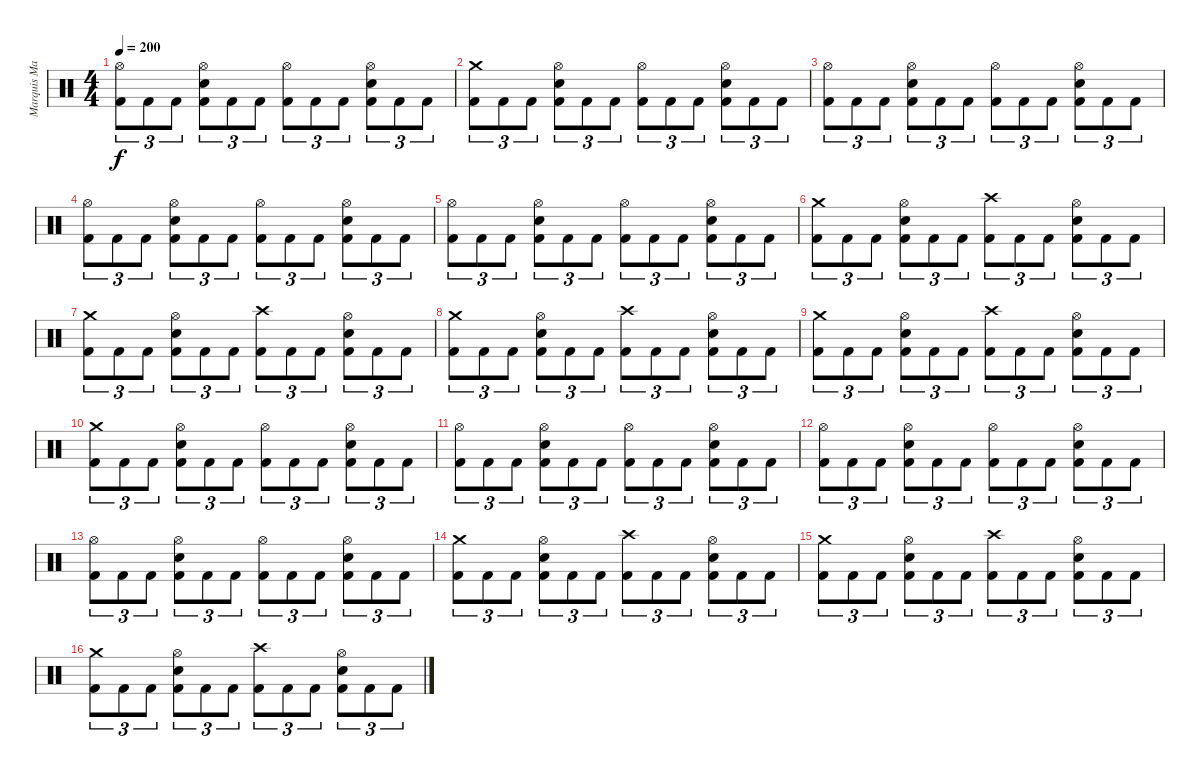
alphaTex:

\track ("Marquis Marky (DRUMS)" "Marquis Ma") {instrument percussion}
\staff {score}
\articulation defaults
\ts (4 4)
\tempo 200
\clef neutral
\ks c
("Hi-Hat (open)" "Kick (hit) 2").8{tu (3 2) dy f} "Kick (hit) 2".8{tu (3 2)} "Kick (hit) 2".8{tu (3 2)} ("Hi-Hat (open)" "Snare (hit) 2" "Kick (hit) 2").8{tu (3 2)} "Kick (hit) 2".8{tu (3 2)} "Kick (hit) 2".8{tu (3 2)} ("Hi-Hat (open)" "Kick (hit) 2").8{tu (3 2)} "Kick (hit) 2".8{tu (3 2)} "Kick (hit) 2".8{tu (3 2)} ("Hi-Hat (open)" "Snare (hit) 2" "Kick (hit) 2").8{tu (3 2)} "Kick (hit) 2".8{tu (3 2)} "Kick (hit) 2".8{tu (3 2)} |
("Crash medium (hit)" "Kick (hit) 2").8{tu (3 2)} "Kick (hit) 2".8{tu (3 2)} "Kick (hit) 2".8{tu (3 2)} ("Hi-Hat (open)" "Snare (hit) 2" "Kick (hit) 2").8{tu (3 2)} "Kick (hit) 2".8{tu (3 2)} "Kick (hit) 2".8{tu (3 2)} ("Hi-Hat (open)" "Kick (hit) 2").8{tu (3 2)} "Kick (hit) 2".8{tu (3 2)} "Kick (hit) 2".8{tu (3 2)} ("Hi-Hat (open)" "Snare (hit) 2" "Kick (hit) 2").8{tu (3 2)} "Kick (hit) 2".8{tu (3 2)} "Kick (hit) 2".8{tu (3 2)} |
("Hi-Hat (open)" "Kick (hit) 2").8{tu (3 2)} "Kick (hit) 2".8{tu (3 2)} "Kick (hit) 2".8{tu (3 2)} ("Hi-Hat (open)" "Snare (hit) 2" "Kick (hit) 2").8{tu (3 2)} "Kick (hit) 2".8{tu (3 2)} "Kick (hit) 2".8{tu (3 2)} ("Hi-Hat (open)" "Kick (hit) 2").8{tu (3 2)} "Kick (hit) 2".8{tu (3 2)} "Kick (hit) 2".8{tu (3 2)} ("Hi-Hat (open)" "Snare (hit) 2" "Kick (hit) 2").8{tu (3 2)} "Kick (hit) 2".8{tu (3 2)} "Kick (hit) 2".8{tu (3 2)} |
("Hi-Hat (open)" "Kick (hit) 2").8{tu (3 2)} "Kick (hit) 2".8{tu (3 2)} "Kick (hit) 2".8{tu (3 2)} ("Hi-Hat (open)" "Snare (hit) 2" "Kick (hit) 2").8{tu (3 2)} "Kick (hit) 2".8{tu (3 2)} "Kick (hit) 2".8{tu (3 2)} ("Hi-Hat (open)" "Kick (hit) 2").8{tu (3 2)} "Kick (hit) 2".8{tu (3 2)} "Kick (hit) 2".8{tu (3 2)} ("Hi-Hat (open)" "Snare (hit) 2" "Kick (hit) 2").8{tu (3 2)} "Kick (hit) 2".8{tu (3 2)} "Kick (hit) 2".8{tu (3 2)} |
("Hi-Hat (open)" "Kick (hit) 2").8{tu (3 2)} "Kick (hit) 2".8{tu (3 2)} "Kick (hit) 2".8{tu (3 2)} ("Hi-Hat (open)" "Snare (hit) 2" "Kick (hit) 2").8{tu (3 2)} "Kick (hit) 2".8{tu (3 2)} "Kick (hit) 2".8{tu (3 2)} ("Hi-Hat (open)" "Kick (hit) 2").8{tu (3 2)} "Kick (hit) 2".8{tu (3 2)} "Kick (hit) 2".8{tu (3 2)} ("Hi-Hat (open)" "Snare (hit) 2" "Kick (hit) 2").8{tu (3 2)} "Kick (hit) 2".8{tu (3 2)} "Kick (hit) 2".8{tu (3 2)} |
("Crash medium (hit)" "Kick (hit) 2").8{tu (3 2)} "Kick (hit) 2".8{tu (3 2)} "Kick (hit) 2".8{tu (3 2)} ("Hi-Hat (open)" "Snare (hit) 2" "Kick (hit) 2").8{tu (3 2)} "Kick (hit) 2".8{tu (3 2)} "Kick (hit) 2".8{tu (3 2)} ("Crash high (hit)" "Kick (hit) 2").8{tu (3 2)} "Kick (hit) 2".8{tu (3 2)} "Kick (hit) 2".8{tu (3 2)} ("Hi-Hat (open)" "Snare (hit) 2" "Kick (hit) 2").8{tu (3 2)} "Kick (hit) 2".8{tu (3 2)} "Kick (hit) 2".8{tu (3 2)} |
("Crash medium (hit)" "Kick (hit) 2").8{tu (3 2)} "Kick (hit) 2".8{tu (3 2)} "Kick (hit) 2".8{tu (3 2)} ("Hi-Hat (open)" "Snare (hit) 2" "Kick (hit) 2").8{tu (3 2)} "Kick (hit) 2".8{tu (3 2)} "Kick (hit) 2".8{tu (3 2)} ("Crash high (hit)" "Kick (hit) 2").8{tu (3 2)} "Kick (hit) 2".8{tu (3 2)} "Kick (hit) 2".8{tu (3 2)} ("Hi-Hat (open)" "Snare (hit) 2" "Kick (hit) 2").8{tu (3 2)} "Kick (hit) 2".8{tu (3 2)} "Kick (hit) 2".8{tu (3 2)} |
("Crash medium (hit)" "Kick (hit) 2").8{tu (3 2)} "Kick (hit) 2".8{tu (3 2)} "Kick (hit) 2".8{tu (3 2)} ("Hi-Hat (open)" "Snare (hit) 2" "Kick (hit) 2").8{tu (3 2)} "Kick (hit) 2".8{tu (3 2)} "Kick (hit) 2".8{tu (3 2)} ("Crash high (hit)" "Kick (hit) 2").8{tu (3 2)} "Kick (hit) 2".8{tu (3 2)} "Kick (hit) 2".8{tu (3 2)} ("Hi-Hat (open)" "Snare (hit) 2" "Kick (hit) 2").8{tu (3 2)} "Kick (hit) 2".8{tu (3 2)} "Kick (hit) 2".8{tu (3 2)} |
("Crash medium (hit)" "Kick (hit) 2").8{tu (3 2)} "Kick (hit) 2".8{tu (3 2)} "Kick (hit) 2".8{tu (3 2)} ("Hi-Hat (open)" "Snare (hit) 2" "Kick (hit) 2").8{tu (3 2)} "Kick (hit) 2".8{tu (3 2)} "Kick (hit) 2".8{tu (3 2)} ("Crash high (hit)" "Kick (hit) 2").8{tu (3 2)} "Kick (hit) 2".8{tu (3 2)} "Kick (hit) 2".8{tu (3 2)} ("Hi-Hat (open)" "Snare (hit) 2" "Kick (hit) 2").8{tu (3 2)} "Kick (hit) 2".8{tu (3 2)} "Kick (hit) 2".8{tu (3 2)} |
("Crash medium (hit)" "Kick (hit) 2").8{tu (3 2)} "Kick (hit) 2".8{tu (3 2)} "Kick (hit) 2".8{tu (3 2)} ("Hi-Hat (open)" "Snare (hit) 2" "Kick (hit) 2").8{tu (3 2)} "Kick (hit) 2".8{tu (3 2)} "Kick (hit) 2".8{tu (3 2)} ("Hi-Hat (open)" "Kick (hit) 2").8{tu (3 2)} "Kick (hit) 2".8{tu (3 2)} "Kick (hit) 2".8{tu (3 2)} ("Hi-Hat (open)" "Snare (hit) 2" "Kick (hit) 2").8{tu (3 2)} "Kick (hit) 2".8{tu (3 2)} "Kick (hit) 2".8{tu (3 2)} |
("Hi-Hat (open)" "Kick (hit) 2").8{tu (3 2)} "Kick (hit) 2".8{tu (3 2)} "Kick (hit) 2".8{tu (3 2)} ("Hi-Hat (open)" "Snare (hit) 2" "Kick (hit) 2").8{tu (3 2)} "Kick (hit) 2".8{tu (3 2)} "Kick (hit) 2".8{tu (3 2)} ("Hi-Hat (open)" "Kick (hit) 2").8{tu (3 2)} "Kick (hit) 2".8{tu (3 2)} "Kick (hit) 2".8{tu (3 2)} ("Hi-Hat (open)" "Snare (hit) 2" "Kick (hit) 2").8{tu (3 2)} "Kick (hit) 2".8{tu (3 2)} "Kick (hit) 2".8{tu (3 2)} |
("Hi-Hat (open)" "Kick (hit) 2").8{tu (3 2)} "Kick (hit) 2".8{tu (3 2)} "Kick (hit) 2".8{tu (3 2)} ("Hi-Hat (open)" "Snare (hit) 2" "Kick (hit) 2").8{tu (3 2)} "Kick (hit) 2".8{tu (3 2)} "Kick (hit) 2".8{tu (3 2)} ("Hi-Hat (open)" "Kick (hit) 2").8{tu (3 2)} "Kick (hit) 2".8{tu (3 2)} "Kick (hit) 2".8{tu (3 2)} ("Hi-Hat (open)" "Snare (hit) 2" "Kick (hit) 2").8{tu (3 2)} "Kick (hit) 2".8{tu (3 2)} "Kick (hit) 2".8{tu (3 2)} |
("Hi-Hat (open)" "Kick (hit) 2").8{tu (3 2)} "Kick (hit) 2".8{tu (3 2)} "Kick (hit) 2".8{tu (3 2)} ("Hi-Hat (open)" "Snare (hit) 2" "Kick (hit) 2").8{tu (3 2)} "Kick (hit) 2".8{tu (3 2)} "Kick (hit) 2".8{tu (3 2)} ("Hi-Hat (open)" "Kick (hit) 2").8{tu (3 2)} "Kick (hit) 2".8{tu (3 2)} "Kick (hit) 2".8{tu (3 2)} ("Hi-Hat (open)" "Snare (hit) 2" "Kick (hit) 2").8{tu (3 2)} "Kick (hit) 2".8{tu (3 2)} "Kick (hit) 2".8{tu (3 2)} |
("Crash medium (hit)" "Kick (hit) 2").8{tu (3 2)} "Kick (hit) 2".8{tu (3 2)} "Kick (hit) 2".8{tu (3 2)} ("Hi-Hat (open)" "Snare (hit) 2" "Kick (hit) 2").8{tu (3 2)} "Kick (hit) 2".8{tu (3 2)} "Kick (hit) 2".8{tu (3 2)} ("Crash high (hit)" "Kick (hit) 2").8{tu (3 2)} "Kick (hit) 2".8{tu (3 2)} "Kick (hit) 2".8{tu (3 2)} ("Hi-Hat (open)" "Snare (hit) 2" "Kick (hit) 2").8{tu (3 2)} "Kick (hit) 2".8{tu (3 2)} "Kick (hit) 2".8{tu (3 2)} |
("Crash medium (hit)" "Kick (hit) 2").8{tu (3 2)} "Kick (hit) 2".8{tu (3 2)} "Kick (hit) 2".8{tu (3 2)} ("Hi-Hat (open)" "Snare (hit) 2" "Kick (hit) 2").8{tu (3 2)} "Kick (hit) 2".8{tu (3 2)} "Kick (hit) 2".8{tu (3 2)} ("Crash high (hit)" "Kick (hit) 2").8{tu (3 2)} "Kick (hit) 2".8{tu (3 2)} "Kick (hit) 2".8{tu (3 2)} ("Hi-Hat (open)" "Snare (hit) 2" "Kick (hit) 2").8{tu (3 2)} "Kick (hit) 2".8{tu (3 2)} "Kick (hit) 2".8{tu (3 2)} |
("Crash medium (hit)" "Kick (hit) 2").8{tu (3 2)} "Kick (hit) 2".8{tu (3 2)} "Kick (hit) 2".8{tu (3 2)} ("Hi-Hat (open)" "Snare (hit) 2" "Kick (hit) 2").8{tu (3 2)} "Kick (hit) 2".8{tu (3 2)} "Kick (hit) 2".8{tu (3 2)} ("Crash high (hit)" "Kick (hit) 2").8{tu (3 2)} "Kick (hit) 2".8{tu (3 2)} "Kick (hit) 2".8{tu (3 2)} ("Hi-Hat (open)" "Snare (hit) 2" "Kick (hit) 2").8{tu (3 2)} "Kick (hit) 2".8{tu (3 2)} "Kick (hit) 2".8{tu (3 2)}
